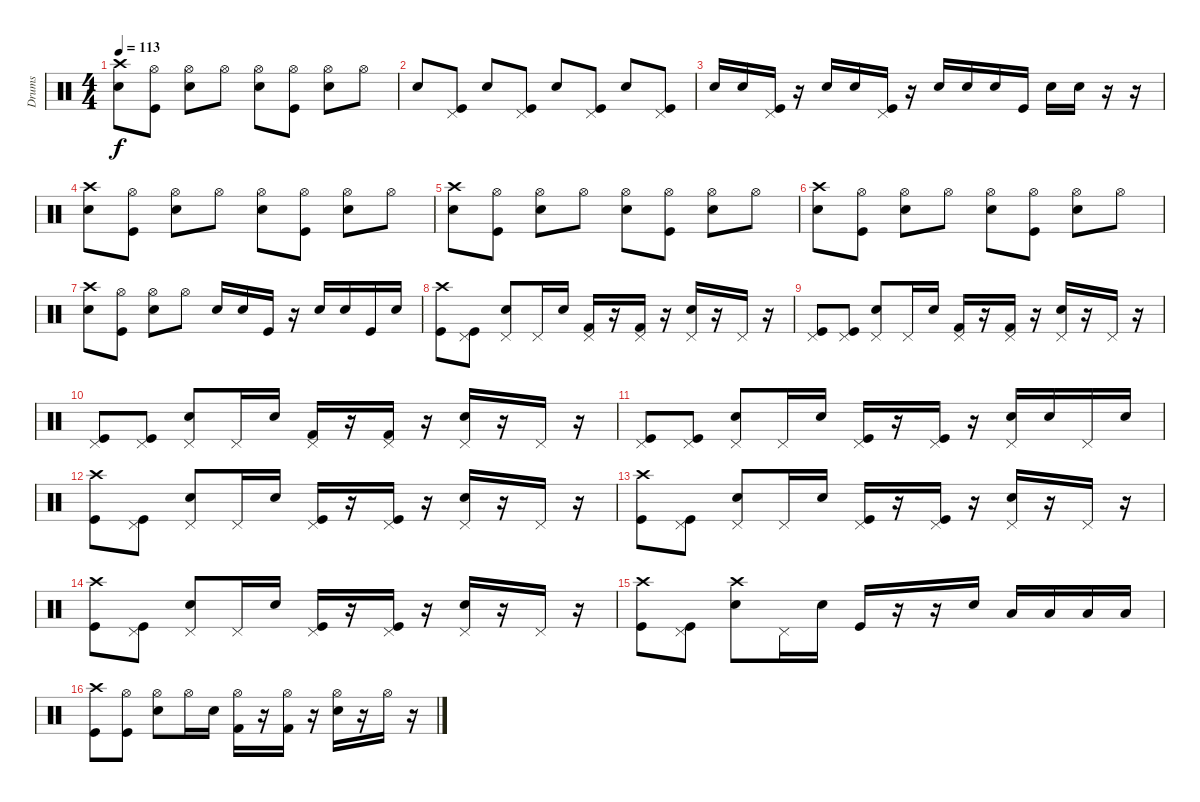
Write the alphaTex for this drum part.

\track ("Drums" "Drums") {instrument percussion}
\staff {score}
\articulation defaults
\ts (4 4)
\tempo 113
\clef neutral
\ks c
("Crash high (hit)" "Electric Snare (hit)").8{dy f} ("Hi-Hat (open)" "Kick (hit)").8 ("Hi-Hat (open)" "Electric Snare (hit)").8 "Hi-Hat (open)".8 ("Hi-Hat (open)" "Electric Snare (hit)").8 ("Hi-Hat (open)" "Kick (hit)").8 ("Hi-Hat (open)" "Electric Snare (hit)").8 "Hi-Hat (open)".8 |
"Electric Snare (hit)".8 ("Pedal Hi-Hat (hit)" "Kick (hit)").8 "Electric Snare (hit)".8 ("Pedal Hi-Hat (hit)" "Kick (hit)").8 "Electric Snare (hit)".8 ("Pedal Hi-Hat (hit)" "Kick (hit)").8 "Electric Snare (hit)".8 ("Pedal Hi-Hat (hit)" "Kick (hit)").8 |
"Electric Snare (hit)".16 "Electric Snare (hit)".16 ("Pedal Hi-Hat (hit)" "Kick (hit)").16 r.16 "Electric Snare (hit)".16 "Electric Snare (hit)".16 ("Pedal Hi-Hat (hit)" "Kick (hit)").16 r.16 "Electric Snare (hit)".16 "Electric Snare (hit)".16 "Electric Snare (hit)".16 "Kick (hit)".16 "Electric Snare (hit)".16 "Electric Snare (hit)".16 r.16 r.16 |
("Crash high (hit)" "Electric Snare (hit)").8 ("Hi-Hat (open)" "Kick (hit)").8 ("Hi-Hat (open)" "Electric Snare (hit)").8 "Hi-Hat (open)".8 ("Hi-Hat (open)" "Electric Snare (hit)").8 ("Hi-Hat (open)" "Kick (hit)").8 ("Hi-Hat (open)" "Electric Snare (hit)").8 "Hi-Hat (open)".8 |
("Crash high (hit)" "Electric Snare (hit)").8 ("Hi-Hat (open)" "Kick (hit)").8 ("Hi-Hat (open)" "Electric Snare (hit)").8 "Hi-Hat (open)".8 ("Hi-Hat (open)" "Electric Snare (hit)").8 ("Hi-Hat (open)" "Kick (hit)").8 ("Hi-Hat (open)" "Electric Snare (hit)").8 "Hi-Hat (open)".8 |
("Crash high (hit)" "Electric Snare (hit)").8 ("Hi-Hat (open)" "Kick (hit)").8 ("Hi-Hat (open)" "Electric Snare (hit)").8 "Hi-Hat (open)".8 ("Hi-Hat (open)" "Electric Snare (hit)").8 ("Hi-Hat (open)" "Kick (hit)").8 ("Hi-Hat (open)" "Electric Snare (hit)").8 "Hi-Hat (open)".8 |
("Crash high (hit)" "Electric Snare (hit)").8 ("Hi-Hat (open)" "Kick (hit)").8 ("Hi-Hat (open)" "Electric Snare (hit)").8 "Hi-Hat (open)".8 "Electric Snare (hit)".16 "Electric Snare (hit)".16 "Kick (hit)".16 r.16 "Electric Snare (hit)".16 "Electric Snare (hit)".16 "Kick (hit)".16 "Electric Snare (hit)".16 |
("Crash high (hit)" "Kick (hit)").8 ("Pedal Hi-Hat (hit)" "Kick (hit)").8 ("Pedal Hi-Hat (hit)" "Electric Snare (hit)").8 "Pedal Hi-Hat (hit)".16 "Electric Snare (hit)".16 ("Pedal Hi-Hat (hit)" "Kick (hit) 2").16 r.16 ("Pedal Hi-Hat (hit)" "Kick (hit) 2").16 r.16 ("Pedal Hi-Hat (hit)" "Electric Snare (hit)").16 r.16 "Pedal Hi-Hat (hit)".16 r.16 |
("Pedal Hi-Hat (hit)" "Kick (hit)").8 ("Pedal Hi-Hat (hit)" "Kick (hit)").8 ("Pedal Hi-Hat (hit)" "Electric Snare (hit)").8 "Pedal Hi-Hat (hit)".16 "Electric Snare (hit)".16 ("Pedal Hi-Hat (hit)" "Kick (hit) 2").16 r.16 ("Pedal Hi-Hat (hit)" "Kick (hit) 2").16 r.16 ("Pedal Hi-Hat (hit)" "Electric Snare (hit)").16 r.16 "Pedal Hi-Hat (hit)".16 r.16 |
("Pedal Hi-Hat (hit)" "Kick (hit)").8 ("Pedal Hi-Hat (hit)" "Kick (hit)").8 ("Pedal Hi-Hat (hit)" "Electric Snare (hit)").8 "Pedal Hi-Hat (hit)".16 "Electric Snare (hit)".16 ("Pedal Hi-Hat (hit)" "Kick (hit) 2").16 r.16 ("Pedal Hi-Hat (hit)" "Kick (hit) 2").16 r.16 ("Pedal Hi-Hat (hit)" "Electric Snare (hit)").16 r.16 "Pedal Hi-Hat (hit)".16 r.16 |
("Pedal Hi-Hat (hit)" "Kick (hit)").8 ("Pedal Hi-Hat (hit)" "Kick (hit)").8 ("Pedal Hi-Hat (hit)" "Electric Snare (hit)").8 "Pedal Hi-Hat (hit)".16 "Electric Snare (hit)".16 ("Pedal Hi-Hat (hit)" "Kick (hit)").16 r.16 ("Pedal Hi-Hat (hit)" "Kick (hit)").16 r.16 ("Pedal Hi-Hat (hit)" "Electric Snare (hit)").16 "Electric Snare (hit)".16 "Pedal Hi-Hat (hit)".16 "Electric Snare (hit)".16 |
("Crash high (hit)" "Kick (hit)").8 ("Pedal Hi-Hat (hit)" "Kick (hit)").8 ("Pedal Hi-Hat (hit)" "Electric Snare (hit)").8 "Pedal Hi-Hat (hit)".16 "Electric Snare (hit)".16 ("Pedal Hi-Hat (hit)" "Kick (hit)").16 r.16 ("Pedal Hi-Hat (hit)" "Kick (hit)").16 r.16 ("Pedal Hi-Hat (hit)" "Electric Snare (hit)").16 r.16 "Pedal Hi-Hat (hit)".16 r.16 |
("Crash high (hit)" "Kick (hit)").8 ("Pedal Hi-Hat (hit)" "Kick (hit)").8 ("Pedal Hi-Hat (hit)" "Electric Snare (hit)").8 "Pedal Hi-Hat (hit)".16 "Electric Snare (hit)".16 ("Pedal Hi-Hat (hit)" "Kick (hit)").16 r.16 ("Pedal Hi-Hat (hit)" "Kick (hit)").16 r.16 ("Pedal Hi-Hat (hit)" "Electric Snare (hit)").16 r.16 "Pedal Hi-Hat (hit)".16 r.16 |
("Crash high (hit)" "Kick (hit)").8 ("Pedal Hi-Hat (hit)" "Kick (hit)").8 ("Pedal Hi-Hat (hit)" "Electric Snare (hit)").8 "Pedal Hi-Hat (hit)".16 "Electric Snare (hit)".16 ("Pedal Hi-Hat (hit)" "Kick (hit)").16 r.16 ("Pedal Hi-Hat (hit)" "Kick (hit)").16 r.16 ("Pedal Hi-Hat (hit)" "Electric Snare (hit)").16 r.16 "Pedal Hi-Hat (hit)".16 r.16 |
("Crash high (hit)" "Kick (hit)").8 ("Pedal Hi-Hat (hit)" "Kick (hit)").8 ("Crash high (hit)" "Electric Snare (hit)").8 "Pedal Hi-Hat (hit)".16 "Electric Snare (hit)".16 "Kick (hit)".16 r.16 r.16 "Electric Snare (hit)".16 "Low Tom (hit)".16 "Low Tom (hit)".16 "Low Tom (hit)".16 "Low Tom (hit)".16 |
("Crash high (hit)" "Kick (hit)").8 ("Hi-Hat (open)" "Kick (hit)").8 ("Hi-Hat (open)" "Electric Snare (hit)").8 "Hi-Hat (open)".16 "Electric Snare (hit)".16 ("Hi-Hat (open)" "Kick (hit) 2").16 r.16 ("Hi-Hat (open)" "Kick (hit) 2").16 r.16 ("Hi-Hat (open)" "Electric Snare (hit)").16 r.16 "Hi-Hat (open)".16 r.16
